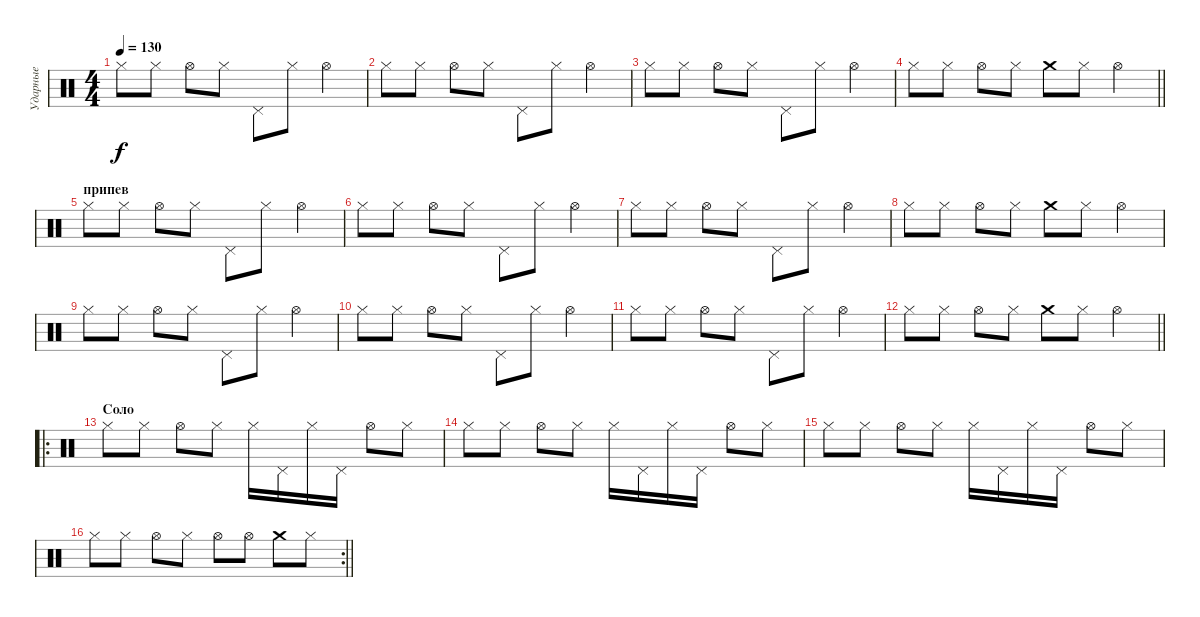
\track ("Ударные" "Ударные") {instrument percussion}
\staff {score}
\articulation defaults
\ts (4 4)
\tempo 130
\clef neutral
\ks c "Hi-Hat (closed)".8{dy f} "Hi-Hat (closed)".8 "Hi-Hat (open)".8 "Hi-Hat (closed)".8 "Pedal Hi-Hat (hit)".8 "Hi-Hat (closed)".8 "Hi-Hat (open)".4
|
"Hi-Hat (closed)".8 "Hi-Hat (closed)".8 "Hi-Hat (open)".8 "Hi-Hat (closed)".8 "Pedal Hi-Hat (hit)".8 "Hi-Hat (closed)".8 "Hi-Hat (open)".4 |
"Hi-Hat (closed)".8 "Hi-Hat (closed)".8 "Hi-Hat (open)".8 "Hi-Hat (closed)".8 "Pedal Hi-Hat (hit)".8 "Hi-Hat (closed)".8 "Hi-Hat (open)".4 |
\barLineRight lightlight "Hi-Hat (closed)".8 "Hi-Hat (closed)".8 "Hi-Hat (open)".8 "Hi-Hat (closed)".8 "Crash medium (hit)".8 "Hi-Hat (closed)".8 "Hi-Hat (open)".4
|
\section ("" "припев")
"Hi-Hat (closed)".8 "Hi-Hat (closed)".8 "Hi-Hat (open)".8 "Hi-Hat (closed)".8 "Pedal Hi-Hat (hit)".8 "Hi-Hat (closed)".8 "Hi-Hat (open)".4 |
"Hi-Hat (closed)".8 "Hi-Hat (closed)".8 "Hi-Hat (open)".8 "Hi-Hat (closed)".8 "Pedal Hi-Hat (hit)".8 "Hi-Hat (closed)".8 "Hi-Hat (open)".4 |
"Hi-Hat (closed)".8 "Hi-Hat (closed)".8 "Hi-Hat (open)".8 "Hi-Hat (closed)".8 "Pedal Hi-Hat (hit)".8 "Hi-Hat (closed)".8 "Hi-Hat (open)".4 |
"Hi-Hat (closed)".8 "Hi-Hat (closed)".8 "Hi-Hat (open)".8 "Hi-Hat (closed)".8 "Crash medium (hit)".8 "Hi-Hat (closed)".8 "Hi-Hat (open)".4 |
"Hi-Hat (closed)".8 "Hi-Hat (closed)".8 "Hi-Hat (open)".8 "Hi-Hat (closed)".8 "Pedal Hi-Hat (hit)".8 "Hi-Hat (closed)".8 "Hi-Hat (open)".4 |
"Hi-Hat (closed)".8 "Hi-Hat (closed)".8 "Hi-Hat (open)".8 "Hi-Hat (closed)".8 "Pedal Hi-Hat (hit)".8 "Hi-Hat (closed)".8 "Hi-Hat (open)".4 |
"Hi-Hat (closed)".8 "Hi-Hat (closed)".8 "Hi-Hat (open)".8 "Hi-Hat (closed)".8 "Pedal Hi-Hat (hit)".8 "Hi-Hat (closed)".8 "Hi-Hat (open)".4 |
\barLineRight lightlight "Hi-Hat (closed)".8 "Hi-Hat (closed)".8 "Hi-Hat (open)".8 "Hi-Hat (closed)".8 "Crash medium (hit)".8 "Hi-Hat (closed)".8 "Hi-Hat (open)".4
|
\ro
\section ("" "Соло")
"Hi-Hat (closed)".8 "Hi-Hat (closed)".8 "Hi-Hat (open)".8 "Hi-Hat (closed)".8 "Hi-Hat (closed)".16 "Pedal Hi-Hat (hit)".16 "Hi-Hat (closed)".16 "Pedal Hi-Hat (hit)".16 "Hi-Hat (open)".8 "Hi-Hat (closed)".8 |
"Hi-Hat (closed)".8 "Hi-Hat (closed)".8 "Hi-Hat (open)".8 "Hi-Hat (closed)".8 "Hi-Hat (closed)".16 "Pedal Hi-Hat (hit)".16 "Hi-Hat (closed)".16 "Pedal Hi-Hat (hit)".16 "Hi-Hat (open)".8 "Hi-Hat (closed)".8 |
"Hi-Hat (closed)".8 "Hi-Hat (closed)".8 "Hi-Hat (open)".8 "Hi-Hat (closed)".8 "Hi-Hat (closed)".16 "Pedal Hi-Hat (hit)".16 "Hi-Hat (closed)".16 "Pedal Hi-Hat (hit)".16 "Hi-Hat (open)".8 "Hi-Hat (closed)".8 |
\rc 2
\barLineRight lightlight "Hi-Hat (closed)".8 "Hi-Hat (closed)".8 "Hi-Hat (open)".8 "Hi-Hat (closed)".8 "Hi-Hat (open)".8 "Hi-Hat (open)".8 "Crash medium (hit)".8 "Hi-Hat (closed)".8
